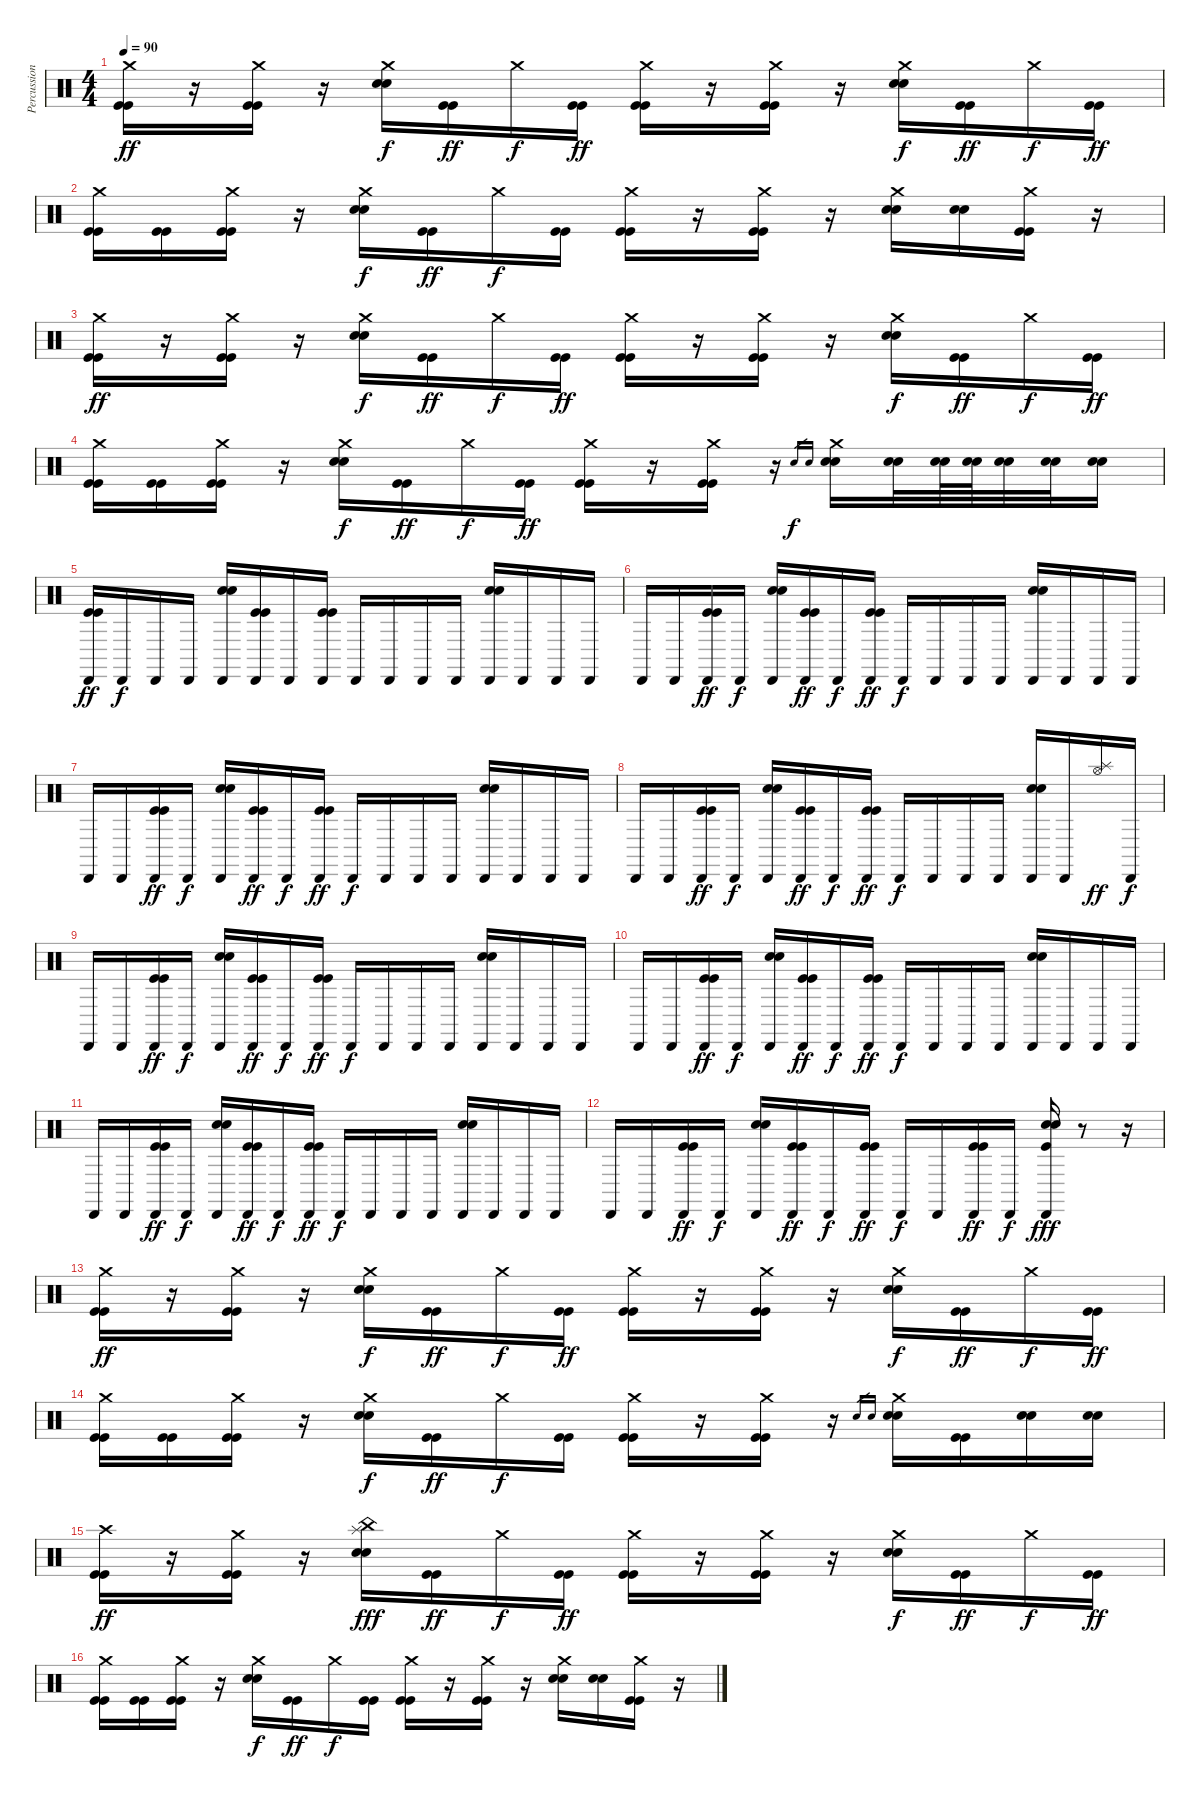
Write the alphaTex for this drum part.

\track ("Percussions" "Percussion") {instrument percussion}
\staff {score}
\articulation defaults
\ts (4 4)
\tempo 90
\clef neutral
\ks c
("Crash medium (hit)" "Kick (hit)" "Kick (hit)").16{dy ff} r.16 ("Crash medium (hit)" "Kick (hit)" "Kick (hit)").16 r.16 ("Crash medium (hit)" "Electric Snare (hit)" "Electric Snare (hit)").16{dy f} ("Kick (hit)" "Kick (hit)").16{dy ff} "Crash medium (hit)".16{dy f} ("Kick (hit)" "Kick (hit)").16{dy ff} ("Crash medium (hit)" "Kick (hit)" "Kick (hit)").16 r.16 ("Crash medium (hit)" "Kick (hit)" "Kick (hit)").16 r.16 ("Crash medium (hit)" "Electric Snare (hit)" "Electric Snare (hit)").16{dy f} ("Kick (hit)" "Kick (hit)").16{dy ff} "Crash medium (hit)".16{dy f} ("Kick (hit)" "Kick (hit)").16{dy ff} |
("Crash medium (hit)" "Kick (hit)" "Kick (hit)").16 ("Kick (hit)" "Kick (hit)").16 ("Crash medium (hit)" "Kick (hit)" "Kick (hit)").16 r.16 ("Crash medium (hit)" "Electric Snare (hit)" "Electric Snare (hit)").16{dy f} ("Kick (hit)" "Kick (hit)").16{dy ff} "Crash medium (hit)".16{dy f} ("Kick (hit)" "Kick (hit)").16 ("Crash medium (hit)" "Kick (hit)" "Kick (hit)").16 r.16 ("Crash medium (hit)" "Kick (hit)" "Kick (hit)").16 r.16 ("Crash medium (hit)" "Electric Snare (hit)" "Electric Snare (hit)").16 ("Electric Snare (hit)" "Electric Snare (hit)").16 ("Crash medium (hit)" "Kick (hit)" "Kick (hit)").16 r.16 |
("Crash medium (hit)" "Kick (hit)" "Kick (hit)").16{dy ff} r.16 ("Crash medium (hit)" "Kick (hit)" "Kick (hit)").16 r.16 ("Crash medium (hit)" "Electric Snare (hit)" "Electric Snare (hit)").16{dy f} ("Kick (hit)" "Kick (hit)").16{dy ff} "Crash medium (hit)".16{dy f} ("Kick (hit)" "Kick (hit)").16{dy ff} ("Crash medium (hit)" "Kick (hit)" "Kick (hit)").16 r.16 ("Crash medium (hit)" "Kick (hit)" "Kick (hit)").16 r.16 ("Crash medium (hit)" "Electric Snare (hit)" "Electric Snare (hit)").16{dy f} ("Kick (hit)" "Kick (hit)").16{dy ff} "Crash medium (hit)".16{dy f} ("Kick (hit)" "Kick (hit)").16{dy ff} |
("Crash medium (hit)" "Kick (hit)" "Kick (hit)").16 ("Kick (hit)" "Kick (hit)").16 ("Crash medium (hit)" "Kick (hit)" "Kick (hit)").16 r.16 ("Crash medium (hit)" "Electric Snare (hit)" "Electric Snare (hit)").16{dy f} ("Kick (hit)" "Kick (hit)").16{dy ff} "Crash medium (hit)".16{dy f} ("Kick (hit)" "Kick (hit)").16{dy ff} ("Crash medium (hit)" "Kick (hit)" "Kick (hit)").16 r.16 ("Crash medium (hit)" "Kick (hit)" "Kick (hit)").16 r.16 "Electric Snare (hit)".16{gr dy f} "Electric Snare (hit)".16{gr} ("Crash medium (hit)" "Electric Snare (hit)" "Electric Snare (hit)").16 ("Electric Snare (hit)" "Electric Snare (hit)").32 ("Electric Snare (hit)" "Electric Snare (hit)").64 ("Electric Snare (hit)" "Electric Snare (hit)").64 ("Electric Snare (hit)" "Electric Snare (hit)").32 ("Electric Snare (hit)" "Electric Snare (hit)").32 ("Electric Snare (hit)" "Electric Snare (hit)").16 |
("Cabasa (hit)" "Kick (hit)" "Kick (hit)").16{dy ff} "Cabasa (hit)".16{dy f} "Cabasa (hit)".16 "Cabasa (hit)".16 ("Cabasa (hit)" "Electric Snare (hit)" "Electric Snare (hit)").16 ("Cabasa (hit)" "Kick (hit)" "Kick (hit)").16 "Cabasa (hit)".16 ("Cabasa (hit)" "Kick (hit)" "Kick (hit)").16 "Cabasa (hit)".16 "Cabasa (hit)".16 "Cabasa (hit)".16 "Cabasa (hit)".16 ("Cabasa (hit)" "Electric Snare (hit)" "Electric Snare (hit)").16 "Cabasa (hit)".16 "Cabasa (hit)".16 "Cabasa (hit)".16 |
"Cabasa (hit)".16 "Cabasa (hit)".16 ("Cabasa (hit)" "Kick (hit)" "Kick (hit)").16{dy ff} "Cabasa (hit)".16{dy f} ("Cabasa (hit)" "Electric Snare (hit)" "Electric Snare (hit)").16 ("Cabasa (hit)" "Kick (hit)" "Kick (hit)").16{dy ff} "Cabasa (hit)".16{dy f} ("Cabasa (hit)" "Kick (hit)" "Kick (hit)").16{dy ff} "Cabasa (hit)".16{dy f} "Cabasa (hit)".16 "Cabasa (hit)".16 "Cabasa (hit)".16 ("Cabasa (hit)" "Electric Snare (hit)" "Electric Snare (hit)").16 "Cabasa (hit)".16 "Cabasa (hit)".16 "Cabasa (hit)".16 |
"Cabasa (hit)".16 "Cabasa (hit)".16 ("Cabasa (hit)" "Kick (hit)" "Kick (hit)").16{dy ff} "Cabasa (hit)".16{dy f} ("Cabasa (hit)" "Electric Snare (hit)" "Electric Snare (hit)").16 ("Cabasa (hit)" "Kick (hit)" "Kick (hit)").16{dy ff} "Cabasa (hit)".16{dy f} ("Cabasa (hit)" "Kick (hit)" "Kick (hit)").16{dy ff} "Cabasa (hit)".16{dy f} "Cabasa (hit)".16 "Cabasa (hit)".16 "Cabasa (hit)".16 ("Cabasa (hit)" "Electric Snare (hit)" "Electric Snare (hit)").16 "Cabasa (hit)".16 "Cabasa (hit)".16 "Cabasa (hit)".16 |
"Cabasa (hit)".16 "Cabasa (hit)".16 ("Cabasa (hit)" "Kick (hit)" "Kick (hit)").16{dy ff} "Cabasa (hit)".16{dy f} ("Cabasa (hit)" "Electric Snare (hit)" "Electric Snare (hit)").16 ("Cabasa (hit)" "Kick (hit)" "Kick (hit)").16{dy ff} "Cabasa (hit)".16{dy f} ("Cabasa (hit)" "Kick (hit)" "Kick (hit)").16{dy ff} "Cabasa (hit)".16{dy f} "Cabasa (hit)".16 "Cabasa (hit)".16 "Cabasa (hit)".16 ("Cabasa (hit)" "Electric Snare (hit)" "Electric Snare (hit)").16 "Cabasa (hit)".16 ("Splash (hit)" "Hi-Hat (open)").16{dy ff} "Cabasa (hit)".16{dy f} |
"Cabasa (hit)".16 "Cabasa (hit)".16 ("Cabasa (hit)" "Kick (hit)" "Kick (hit)").16{dy ff} "Cabasa (hit)".16{dy f} ("Cabasa (hit)" "Electric Snare (hit)" "Electric Snare (hit)").16 ("Cabasa (hit)" "Kick (hit)" "Kick (hit)").16{dy ff} "Cabasa (hit)".16{dy f} ("Cabasa (hit)" "Kick (hit)" "Kick (hit)").16{dy ff} "Cabasa (hit)".16{dy f} "Cabasa (hit)".16 "Cabasa (hit)".16 "Cabasa (hit)".16 ("Cabasa (hit)" "Electric Snare (hit)" "Electric Snare (hit)").16 "Cabasa (hit)".16 "Cabasa (hit)".16 "Cabasa (hit)".16 |
"Cabasa (hit)".16 "Cabasa (hit)".16 ("Cabasa (hit)" "Kick (hit)" "Kick (hit)").16{dy ff} "Cabasa (hit)".16{dy f} ("Cabasa (hit)" "Electric Snare (hit)" "Electric Snare (hit)").16 ("Cabasa (hit)" "Kick (hit)" "Kick (hit)").16{dy ff} "Cabasa (hit)".16{dy f} ("Cabasa (hit)" "Kick (hit)" "Kick (hit)").16{dy ff} "Cabasa (hit)".16{dy f} "Cabasa (hit)".16 "Cabasa (hit)".16 "Cabasa (hit)".16 ("Cabasa (hit)" "Electric Snare (hit)" "Electric Snare (hit)").16 "Cabasa (hit)".16 "Cabasa (hit)".16 "Cabasa (hit)".16 |
"Cabasa (hit)".16 "Cabasa (hit)".16 ("Cabasa (hit)" "Kick (hit)" "Kick (hit)").16{dy ff} "Cabasa (hit)".16{dy f} ("Cabasa (hit)" "Electric Snare (hit)" "Electric Snare (hit)").16 ("Cabasa (hit)" "Kick (hit)" "Kick (hit)").16{dy ff} "Cabasa (hit)".16{dy f} ("Cabasa (hit)" "Kick (hit)" "Kick (hit)").16{dy ff} "Cabasa (hit)".16{dy f} "Cabasa (hit)".16 "Cabasa (hit)".16 "Cabasa (hit)".16 ("Cabasa (hit)" "Electric Snare (hit)" "Electric Snare (hit)").16 "Cabasa (hit)".16 "Cabasa (hit)".16 "Cabasa (hit)".16 |
"Cabasa (hit)".16 "Cabasa (hit)".16 ("Cabasa (hit)" "Kick (hit)" "Kick (hit)").16{dy ff} "Cabasa (hit)".16{dy f} ("Cabasa (hit)" "Electric Snare (hit)" "Electric Snare (hit)").16 ("Cabasa (hit)" "Kick (hit)" "Kick (hit)").16{dy ff} "Cabasa (hit)".16{dy f} ("Cabasa (hit)" "Kick (hit)" "Kick (hit)").16{dy ff} "Cabasa (hit)".16{dy f} "Cabasa (hit)".16 ("Cabasa (hit)" "Kick (hit)" "Kick (hit)").16{dy ff} "Cabasa (hit)".16{dy f} ("Cabasa (hit)" "Electric Snare (hit)" "Electric Snare (hit)" "Kick (hit)").16{dy fff} r.8 r.16 |
("Crash medium (hit)" "Kick (hit)" "Kick (hit)").16{dy ff} r.16 ("Crash medium (hit)" "Kick (hit)" "Kick (hit)").16 r.16 ("Crash medium (hit)" "Electric Snare (hit)" "Electric Snare (hit)").16{dy f} ("Kick (hit)" "Kick (hit)").16{dy ff} "Crash medium (hit)".16{dy f} ("Kick (hit)" "Kick (hit)").16{dy ff} ("Crash medium (hit)" "Kick (hit)" "Kick (hit)").16 r.16 ("Crash medium (hit)" "Kick (hit)" "Kick (hit)").16 r.16 ("Crash medium (hit)" "Electric Snare (hit)" "Electric Snare (hit)").16{dy f} ("Kick (hit)" "Kick (hit)").16{dy ff} "Crash medium (hit)".16{dy f} ("Kick (hit)" "Kick (hit)").16{dy ff} |
("Crash medium (hit)" "Kick (hit)" "Kick (hit)").16 ("Kick (hit)" "Kick (hit)").16 ("Crash medium (hit)" "Kick (hit)" "Kick (hit)").16 r.16 ("Crash medium (hit)" "Electric Snare (hit)" "Electric Snare (hit)").16{dy f} ("Kick (hit)" "Kick (hit)").16{dy ff} "Crash medium (hit)".16{dy f} ("Kick (hit)" "Kick (hit)").16 ("Crash medium (hit)" "Kick (hit)" "Kick (hit)").16 r.16 ("Crash medium (hit)" "Kick (hit)" "Kick (hit)").16 r.16 "Electric Snare (hit)".16{gr} "Electric Snare (hit)".16{gr} ("Crash medium (hit)" "Electric Snare (hit)" "Electric Snare (hit)").16 ("Kick (hit)" "Kick (hit)").16 ("Electric Snare (hit)" "Electric Snare (hit)").16 ("Electric Snare (hit)" "Electric Snare (hit)").16 |
("Crash high (hit)" "Kick (hit)" "Kick (hit)").16{dy ff} r.16 ("Crash medium (hit)" "Kick (hit)" "Kick (hit)").16 r.16 ("China (hit)" "Splash (hit)" "Electric Snare (hit)" "Electric Snare (hit)").16{dy fff} ("Kick (hit)" "Kick (hit)").16{dy ff} "Crash medium (hit)".16{dy f} ("Kick (hit)" "Kick (hit)").16{dy ff} ("Crash medium (hit)" "Kick (hit)" "Kick (hit)").16 r.16 ("Crash medium (hit)" "Kick (hit)" "Kick (hit)").16 r.16 ("Crash medium (hit)" "Electric Snare (hit)" "Electric Snare (hit)").16{dy f} ("Kick (hit)" "Kick (hit)").16{dy ff} "Crash medium (hit)".16{dy f} ("Kick (hit)" "Kick (hit)").16{dy ff} |
("Crash medium (hit)" "Kick (hit)" "Kick (hit)").16 ("Kick (hit)" "Kick (hit)").16 ("Crash medium (hit)" "Kick (hit)" "Kick (hit)").16 r.16 ("Crash medium (hit)" "Electric Snare (hit)" "Electric Snare (hit)").16{dy f} ("Kick (hit)" "Kick (hit)").16{dy ff} "Crash medium (hit)".16{dy f} ("Kick (hit)" "Kick (hit)").16 ("Crash medium (hit)" "Kick (hit)" "Kick (hit)").16 r.16 ("Crash medium (hit)" "Kick (hit)" "Kick (hit)").16 r.16 ("Crash medium (hit)" "Electric Snare (hit)" "Electric Snare (hit)").16 ("Electric Snare (hit)" "Electric Snare (hit)").16 ("Crash medium (hit)" "Kick (hit)" "Kick (hit)").16 r.16
